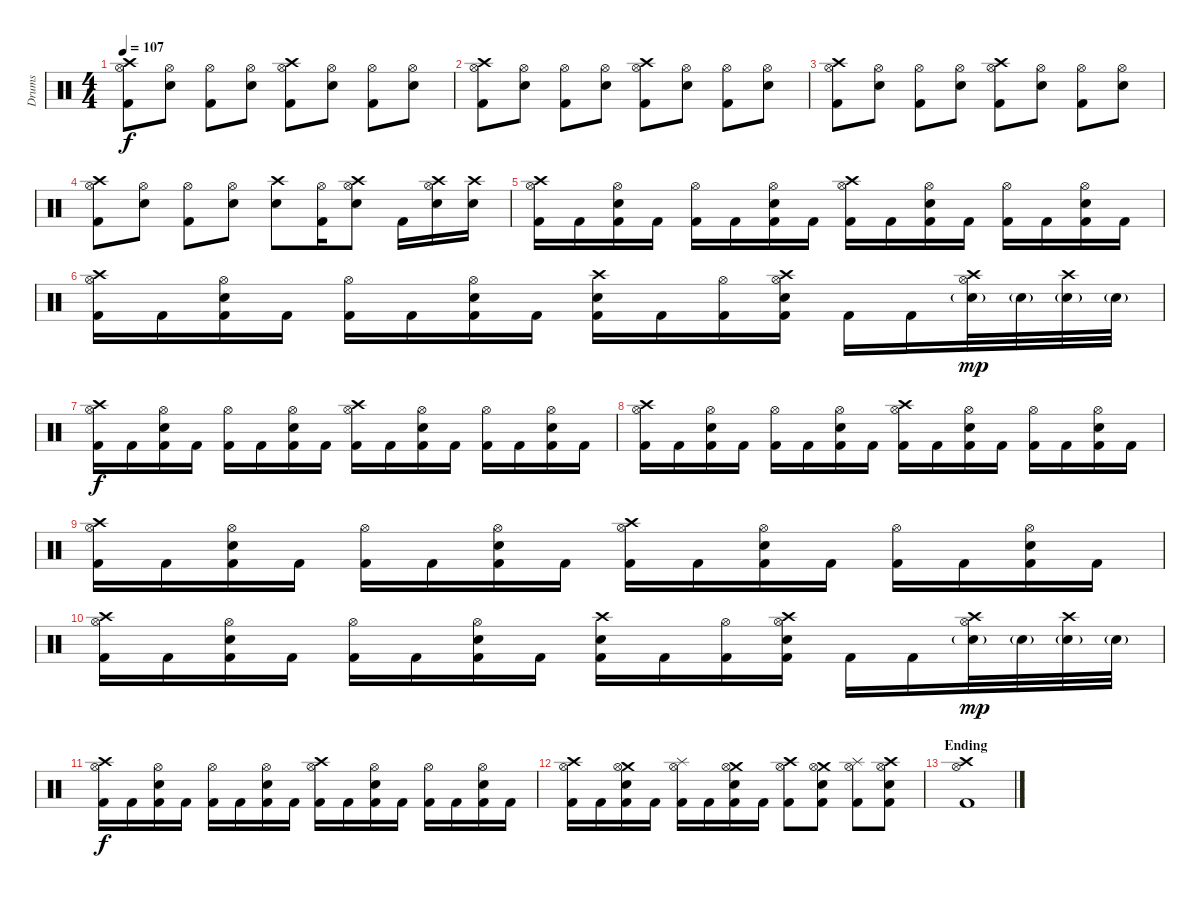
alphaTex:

\track ("Drums" "Drums") {instrument percussion}
\staff {score}
\articulation defaults
\ts (4 4)
\tempo 107
\clef neutral
\ks c
("Crash high (hit)" "Hi-Hat (open)" "Kick (hit) 2").8{dy f} ("Hi-Hat (open)" "Snare (hit) 2").8 ("Hi-Hat (open)" "Kick (hit) 2").8 ("Hi-Hat (open)" "Snare (hit) 2").8 ("Crash high (hit)" "Hi-Hat (open)" "Kick (hit) 2").8 ("Hi-Hat (open)" "Snare (hit) 2").8 ("Hi-Hat (open)" "Kick (hit) 2").8 ("Hi-Hat (open)" "Snare (hit) 2").8 |
("Crash high (hit)" "Hi-Hat (open)" "Kick (hit) 2").8 ("Hi-Hat (open)" "Snare (hit) 2").8 ("Hi-Hat (open)" "Kick (hit) 2").8 ("Hi-Hat (open)" "Snare (hit) 2").8 ("Crash high (hit)" "Hi-Hat (open)" "Kick (hit) 2").8 ("Hi-Hat (open)" "Snare (hit) 2").8 ("Hi-Hat (open)" "Kick (hit) 2").8 ("Hi-Hat (open)" "Snare (hit) 2").8 |
("Crash high (hit)" "Hi-Hat (open)" "Kick (hit) 2").8 ("Hi-Hat (open)" "Snare (hit) 2").8 ("Hi-Hat (open)" "Kick (hit) 2").8 ("Hi-Hat (open)" "Snare (hit) 2").8 ("Crash high (hit)" "Hi-Hat (open)" "Kick (hit) 2").8 ("Hi-Hat (open)" "Snare (hit) 2").8 ("Hi-Hat (open)" "Kick (hit) 2").8 ("Hi-Hat (open)" "Snare (hit) 2").8 |
("Crash high (hit)" "Hi-Hat (open)" "Kick (hit) 2").8 ("Hi-Hat (open)" "Snare (hit) 2").8 ("Hi-Hat (open)" "Kick (hit) 2").8 ("Hi-Hat (open)" "Snare (hit) 2").8 ("Crash high (hit)" "Snare (hit) 2").8 ("Hi-Hat (open)" "Kick (hit) 2").16 ("Crash high (hit)" "Hi-Hat (open)" "Snare (hit) 2").8 "Kick (hit) 2".16 ("Crash high (hit)" "Hi-Hat (open)" "Snare (hit) 2").16 ("Crash high (hit)" "Snare (hit) 2").16 |
("Crash high (hit)" "Hi-Hat (open)" "Kick (hit) 2").16 "Kick (hit) 2".16 ("Hi-Hat (open)" "Snare (hit) 2" "Kick (hit) 2").16 "Kick (hit) 2".16 ("Hi-Hat (open)" "Kick (hit) 2").16 "Kick (hit) 2".16 ("Hi-Hat (open)" "Snare (hit) 2" "Kick (hit) 2").16 "Kick (hit) 2".16 ("Crash high (hit)" "Hi-Hat (open)" "Kick (hit) 2").16 "Kick (hit) 2".16 ("Hi-Hat (open)" "Snare (hit) 2" "Kick (hit) 2").16 "Kick (hit) 2".16 ("Hi-Hat (open)" "Kick (hit) 2").16 "Kick (hit) 2".16 ("Hi-Hat (open)" "Snare (hit) 2" "Kick (hit) 2").16 "Kick (hit) 2".16 |
("Crash high (hit)" "Hi-Hat (open)" "Kick (hit) 2").16 "Kick (hit) 2".16 ("Hi-Hat (open)" "Snare (hit) 2" "Kick (hit) 2").16 "Kick (hit) 2".16 ("Hi-Hat (open)" "Kick (hit) 2").16 "Kick (hit) 2".16 ("Hi-Hat (open)" "Snare (hit) 2" "Kick (hit) 2").16 "Kick (hit) 2".16 ("Crash high (hit)" "Snare (hit) 2" "Kick (hit) 2").16 "Kick (hit) 2".16 ("Hi-Hat (open)" "Kick (hit) 2").16 ("Crash high (hit)" "Hi-Hat (open)" "Snare (hit) 2" "Kick (hit) 2").16 "Kick (hit) 2".16 "Kick (hit) 2".16 ("Crash high (hit)" "Hi-Hat (open)" "Snare (hit) 2"{g}).32{dy mp} "Snare (hit) 2"{g}.32 ("Crash high (hit)" "Snare (hit) 2"{g}).32 "Snare (hit) 2"{g}.32 |
("Crash high (hit)" "Hi-Hat (open)" "Kick (hit) 2").16{dy f} "Kick (hit) 2".16 ("Hi-Hat (open)" "Snare (hit) 2" "Kick (hit) 2").16 "Kick (hit) 2".16 ("Hi-Hat (open)" "Kick (hit) 2").16 "Kick (hit) 2".16 ("Hi-Hat (open)" "Snare (hit) 2" "Kick (hit) 2").16 "Kick (hit) 2".16 ("Crash high (hit)" "Hi-Hat (open)" "Kick (hit) 2").16 "Kick (hit) 2".16 ("Hi-Hat (open)" "Snare (hit) 2" "Kick (hit) 2").16 "Kick (hit) 2".16 ("Hi-Hat (open)" "Kick (hit) 2").16 "Kick (hit) 2".16 ("Hi-Hat (open)" "Snare (hit) 2" "Kick (hit) 2").16 "Kick (hit) 2".16 |
("Crash high (hit)" "Hi-Hat (open)" "Kick (hit) 2").16 "Kick (hit) 2".16 ("Hi-Hat (open)" "Snare (hit) 2" "Kick (hit) 2").16 "Kick (hit) 2".16 ("Hi-Hat (open)" "Kick (hit) 2").16 "Kick (hit) 2".16 ("Hi-Hat (open)" "Snare (hit) 2" "Kick (hit) 2").16 "Kick (hit) 2".16 ("Crash high (hit)" "Hi-Hat (open)" "Kick (hit) 2").16 "Kick (hit) 2".16 ("Hi-Hat (open)" "Snare (hit) 2" "Kick (hit) 2").16 "Kick (hit) 2".16 ("Hi-Hat (open)" "Kick (hit) 2").16 "Kick (hit) 2".16 ("Hi-Hat (open)" "Snare (hit) 2" "Kick (hit) 2").16 "Kick (hit) 2".16 |
("Crash high (hit)" "Hi-Hat (open)" "Kick (hit) 2").16 "Kick (hit) 2".16 ("Hi-Hat (open)" "Snare (hit) 2" "Kick (hit) 2").16 "Kick (hit) 2".16 ("Hi-Hat (open)" "Kick (hit) 2").16 "Kick (hit) 2".16 ("Hi-Hat (open)" "Snare (hit) 2" "Kick (hit) 2").16 "Kick (hit) 2".16 ("Crash high (hit)" "Hi-Hat (open)" "Kick (hit) 2").16 "Kick (hit) 2".16 ("Hi-Hat (open)" "Snare (hit) 2" "Kick (hit) 2").16 "Kick (hit) 2".16 ("Hi-Hat (open)" "Kick (hit) 2").16 "Kick (hit) 2".16 ("Hi-Hat (open)" "Snare (hit) 2" "Kick (hit) 2").16 "Kick (hit) 2".16 |
("Crash high (hit)" "Hi-Hat (open)" "Kick (hit) 2").16 "Kick (hit) 2".16 ("Hi-Hat (open)" "Snare (hit) 2" "Kick (hit) 2").16 "Kick (hit) 2".16 ("Hi-Hat (open)" "Kick (hit) 2").16 "Kick (hit) 2".16 ("Hi-Hat (open)" "Snare (hit) 2" "Kick (hit) 2").16 "Kick (hit) 2".16 ("Crash high (hit)" "Snare (hit) 2" "Kick (hit) 2").16 "Kick (hit) 2".16 ("Hi-Hat (open)" "Kick (hit) 2").16 ("Crash high (hit)" "Hi-Hat (open)" "Snare (hit) 2" "Kick (hit) 2").16 "Kick (hit) 2".16 "Kick (hit) 2".16 ("Crash high (hit)" "Hi-Hat (open)" "Snare (hit) 2"{g}).32{dy mp} "Snare (hit) 2"{g}.32 ("Crash high (hit)" "Snare (hit) 2"{g}).32 "Snare (hit) 2"{g}.32 |
("Crash high (hit)" "Hi-Hat (open)" "Kick (hit) 2").16{dy f} "Kick (hit) 2".16 ("Hi-Hat (open)" "Snare (hit) 2" "Kick (hit) 2").16 "Kick (hit) 2".16 ("Hi-Hat (open)" "Kick (hit) 2").16 "Kick (hit) 2".16 ("Hi-Hat (open)" "Snare (hit) 2" "Kick (hit) 2").16 "Kick (hit) 2".16 ("Crash high (hit)" "Hi-Hat (open)" "Kick (hit) 2").16 "Kick (hit) 2".16 ("Hi-Hat (open)" "Snare (hit) 2" "Kick (hit) 2").16 "Kick (hit) 2".16 ("Hi-Hat (open)" "Kick (hit) 2").16 "Kick (hit) 2".16 ("Hi-Hat (open)" "Snare (hit) 2" "Kick (hit) 2").16 "Kick (hit) 2".16 |
("Crash high (hit)" "Hi-Hat (open)" "Kick (hit) 2").16 "Kick (hit) 2".16 ("Crash medium (hit)" "Hi-Hat (open)" "Snare (hit) 2" "Kick (hit) 2").16 "Kick (hit) 2".16 ("Splash (hit)" "Hi-Hat (open)" "Kick (hit) 2").16 "Kick (hit) 2".16 ("Crash medium (hit)" "Hi-Hat (open)" "Snare (hit) 2" "Kick (hit) 2").16 "Kick (hit) 2".16 ("Crash high (hit)" "Hi-Hat (open)" "Kick (hit) 2").8 ("Crash medium (hit)" "Hi-Hat (open)" "Snare (hit) 2" "Kick (hit) 2").8 ("Splash (hit)" "Hi-Hat (open)" "Kick (hit) 2").8 ("Crash high (hit)" "Hi-Hat (open)" "Snare (hit) 2" "Kick (hit) 2").8 |
\section ("" "Ending")
("Crash high (hit)" "Hi-Hat (open)" "Kick (hit) 2").1
